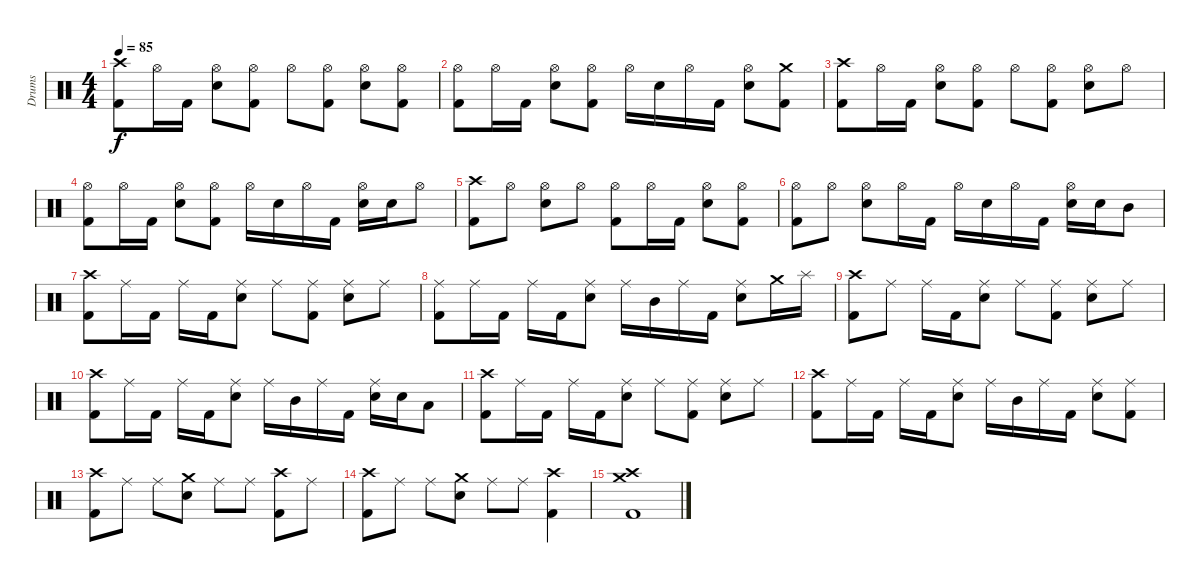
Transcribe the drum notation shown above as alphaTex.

\track ("Drums" "Drums") {instrument percussion}
\staff {score}
\articulation defaults
\ts (4 4)
\tempo 85
\clef neutral
\ks c
("Crash high (hit)" "Kick (hit) 2").8{dy f} "Hi-Hat (open)".16 "Kick (hit) 2".16 ("Hi-Hat (open)" "Electric Snare (hit)").8 ("Hi-Hat (open)" "Kick (hit) 2").8 "Hi-Hat (open)".8 ("Hi-Hat (open)" "Kick (hit) 2").8 ("Hi-Hat (open)" "Electric Snare (hit)").8 ("Hi-Hat (open)" "Kick (hit) 2").8 |
("Hi-Hat (open)" "Kick (hit) 2").8 "Hi-Hat (open)".16 "Kick (hit) 2".16 ("Hi-Hat (open)" "Electric Snare (hit)").8 ("Hi-Hat (open)" "Kick (hit) 2").8 "Hi-Hat (open)".16 "Electric Snare (hit)".16 "Hi-Hat (open)".16 "Kick (hit) 2".16 ("Hi-Hat (open)" "Electric Snare (hit)").8 ("Crash medium (hit)" "Kick (hit) 2").8 |
("Crash high (hit)" "Kick (hit) 2").8 "Hi-Hat (open)".16 "Kick (hit) 2".16 ("Hi-Hat (open)" "Electric Snare (hit)").8 ("Hi-Hat (open)" "Kick (hit) 2").8 "Hi-Hat (open)".8 ("Hi-Hat (open)" "Kick (hit) 2").8 ("Hi-Hat (open)" "Electric Snare (hit)").8 "Hi-Hat (open)".8 |
("Hi-Hat (open)" "Kick (hit) 2").8 "Hi-Hat (open)".16 "Kick (hit) 2".16 ("Hi-Hat (open)" "Electric Snare (hit)").8 ("Hi-Hat (open)" "Kick (hit) 2").8 "Hi-Hat (open)".16 "Electric Snare (hit)".16 "Hi-Hat (open)".16 "Kick (hit) 2".16 ("Hi-Hat (open)" "Electric Snare (hit)").16 "Electric Snare (hit)".16 "Hi-Hat (open)".8 |
("Crash high (hit)" "Kick (hit) 2").8 "Hi-Hat (open)".8 ("Hi-Hat (open)" "Electric Snare (hit)").8 "Hi-Hat (open)".8 ("Hi-Hat (open)" "Kick (hit) 2").8 "Hi-Hat (open)".16 "Kick (hit) 2".16 ("Hi-Hat (open)" "Electric Snare (hit)").8 ("Hi-Hat (open)" "Kick (hit) 2").8 |
("Hi-Hat (open)" "Kick (hit) 2").8 "Hi-Hat (open)".8 ("Hi-Hat (open)" "Electric Snare (hit)").8 "Hi-Hat (open)".16 "Kick (hit) 2".16 "Hi-Hat (open)".16 "Electric Snare (hit)".16 "Hi-Hat (open)".16 "Kick (hit) 2".16 ("Hi-Hat (open)" "Electric Snare (hit)").16 "Electric Snare (hit)".16 "Mid Tom (hit)".8 |
("Crash high (hit)" "Kick (hit) 2").8 "Ride (middle)".16 "Kick (hit) 2".16 "Ride (middle)".16 "Kick (hit) 2".16 ("Ride (middle)" "Electric Snare (hit)").8 "Ride (middle)".8 ("Ride (middle)" "Kick (hit) 2").8 ("Ride (middle)" "Electric Snare (hit)").8 "Ride (middle)".8 |
("Ride (middle)" "Kick (hit) 2").8 "Ride (middle)".16 "Kick (hit) 2".16 "Ride (middle)".16 "Kick (hit) 2".16 ("Ride (middle)" "Electric Snare (hit)").8 "Ride (middle)".16 "Mid Tom (hit)".16 "Ride (middle)".16 "Kick (hit) 2".16 ("Ride (middle)" "Electric Snare (hit)").8 "Crash medium (hit)".16 "Splash (hit)".16 |
("Crash high (hit)" "Kick (hit) 2").8 "Ride (middle)".8 "Ride (middle)".16 "Kick (hit) 2".16 ("Ride (middle)" "Electric Snare (hit)").8 "Ride (middle)".8 ("Ride (middle)" "Kick (hit) 2").8 ("Ride (middle)" "Electric Snare (hit)").8 "Ride (middle)".8 |
("Crash high (hit)" "Kick (hit) 2").8 "Ride (middle)".16 "Kick (hit) 2".16 "Ride (middle)".16 "Kick (hit) 2".16 ("Ride (middle)" "Electric Snare (hit)").8 "Ride (middle)".16 "Mid Tom (hit)".16 "Ride (middle)".16 "Kick (hit) 2".16 ("Ride (middle)" "Electric Snare (hit)").16 "Electric Snare (hit)".16 "Low Tom (hit)".8 |
("Crash high (hit)" "Kick (hit) 2").8 "Ride (middle)".16 "Kick (hit) 2".16 "Ride (middle)".16 "Kick (hit) 2".16 ("Ride (middle)" "Electric Snare (hit)").8 "Ride (middle)".8 ("Ride (middle)" "Kick (hit) 2").8 ("Ride (middle)" "Electric Snare (hit)").8 "Ride (middle)".8 |
("Crash high (hit)" "Kick (hit) 2").8 "Ride (middle)".16 "Kick (hit) 2".16 "Ride (middle)".16 "Kick (hit) 2".16 ("Ride (middle)" "Electric Snare (hit)").8 "Ride (middle)".16 "Mid Tom (hit)".16 "Ride (middle)".16 "Kick (hit) 2".16 ("Ride (middle)" "Electric Snare (hit)").8 ("Ride (middle)" "Kick (hit) 2").8 |
("Crash high (hit)" "Kick (hit) 2").8 "Ride (middle)".8 "Ride (middle)".8 ("Crash medium (hit)" "Electric Snare (hit)").8 "Ride (middle)".8 "Ride (middle)".8 ("Crash high (hit)" "Kick (hit) 2").8 "Ride (middle)".8 |
("Crash high (hit)" "Kick (hit) 2").8 "Ride (middle)".8 "Ride (middle)".8 ("Crash medium (hit)" "Electric Snare (hit)").8 "Ride (middle)".8 "Ride (middle)".8 ("Crash high (hit)" "Kick (hit) 2").4 |
("Crash high (hit)" "Crash medium (hit)" "Kick (hit) 2").1
